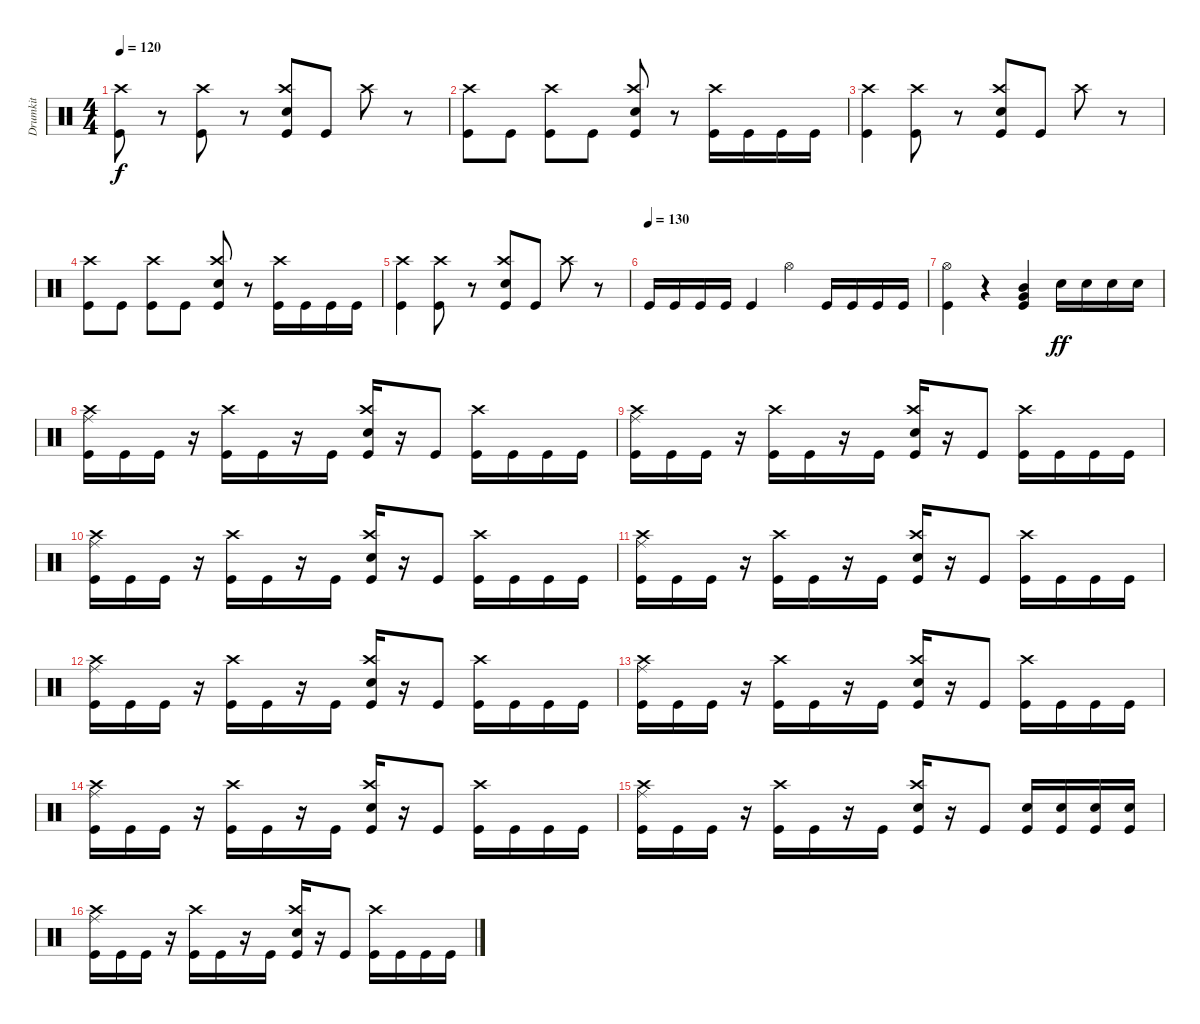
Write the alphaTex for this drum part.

\track ("Drumkit" "Drumkit") {instrument percussion}
\staff {score}
\articulation defaults
\ts (4 4)
\tempo 120
\clef neutral
\ks c
("Kick (hit)" "Crash high (hit)").8{dy f} r.8 ("Crash high (hit)" "Kick (hit)").8 r.8 ("Kick (hit)" "Snare (hit) 2" "Crash high (hit)").8 "Kick (hit)".8 "Crash high (hit)".8 r.8 |
("Kick (hit)" "Crash high (hit)").8 "Kick (hit)".8 ("Kick (hit)" "Crash high (hit)").8 "Kick (hit)".8 ("Kick (hit)" "Crash high (hit)" "Snare (hit) 2").8 r.8 ("Kick (hit)" "Crash high (hit)").16 "Kick (hit)".16 "Kick (hit)".16 "Kick (hit)".16 |
("Kick (hit)" "Crash high (hit)").4 ("Crash high (hit)" "Kick (hit)").8 r.8 ("Kick (hit)" "Snare (hit) 2" "Crash high (hit)").8 "Kick (hit)".8 "Crash high (hit)".8 r.8 |
("Kick (hit)" "Crash high (hit)").8 "Kick (hit)".8 ("Kick (hit)" "Crash high (hit)").8 "Kick (hit)".8 ("Kick (hit)" "Crash high (hit)" "Snare (hit) 2").8 r.8 ("Kick (hit)" "Crash high (hit)").16 "Kick (hit)".16 "Kick (hit)".16 "Kick (hit)".16 |
("Kick (hit)" "Crash high (hit)").4 ("Crash high (hit)" "Kick (hit)").8 r.8 ("Kick (hit)" "Snare (hit) 2" "Crash high (hit)").8 "Kick (hit)".8 "Crash high (hit)".8 r.8 |
\tempo (130)
"Kick (hit)".16 "Kick (hit)".16 "Kick (hit)".16 "Kick (hit)".16 "Kick (hit)".4 "Hi-Hat (open)".4 "Kick (hit)".16 "Kick (hit)".16 "Kick (hit)".16 "Kick (hit)".16 |
("Kick (hit)" "Hi-Hat (open)").4 r.4 ("Kick (hit)" "Very Low Tom (hit)" "Mid Tom (hit)").4 "Snare (hit) 2".16{dy ff} "Snare (hit) 2".16 "Snare (hit) 2".16 "Snare (hit) 2".16 |
("Kick (hit)" "Crash high (hit)" "Ride (middle)").16 "Kick (hit)".16 "Kick (hit)".16 r.16 ("Kick (hit)" "Crash high (hit)").16 "Kick (hit)".16 r.16 "Kick (hit)".16 ("Kick (hit)" "Crash high (hit)" "Snare (hit) 2").16 r.16 "Kick (hit)".8 ("Kick (hit)" "Crash high (hit)").16 "Kick (hit)".16 "Kick (hit)".16 "Kick (hit)".16 |
("Kick (hit)" "Crash high (hit)" "Ride (middle)").16 "Kick (hit)".16 "Kick (hit)".16 r.16 ("Kick (hit)" "Crash high (hit)").16 "Kick (hit)".16 r.16 "Kick (hit)".16 ("Kick (hit)" "Crash high (hit)" "Snare (hit) 2").16 r.16 "Kick (hit)".8 ("Kick (hit)" "Crash high (hit)").16 "Kick (hit)".16 "Kick (hit)".16 "Kick (hit)".16 |
("Kick (hit)" "Crash high (hit)" "Ride (middle)").16 "Kick (hit)".16 "Kick (hit)".16 r.16 ("Kick (hit)" "Crash high (hit)").16 "Kick (hit)".16 r.16 "Kick (hit)".16 ("Kick (hit)" "Crash high (hit)" "Snare (hit) 2").16 r.16 "Kick (hit)".8 ("Kick (hit)" "Crash high (hit)").16 "Kick (hit)".16 "Kick (hit)".16 "Kick (hit)".16 |
("Kick (hit)" "Crash high (hit)" "Ride (middle)").16 "Kick (hit)".16 "Kick (hit)".16 r.16 ("Kick (hit)" "Crash high (hit)").16 "Kick (hit)".16 r.16 "Kick (hit)".16 ("Kick (hit)" "Crash high (hit)" "Snare (hit) 2").16 r.16 "Kick (hit)".8 ("Kick (hit)" "Crash high (hit)").16 "Kick (hit)".16 "Kick (hit)".16 "Kick (hit)".16 |
("Kick (hit)" "Crash high (hit)" "Ride (middle)").16 "Kick (hit)".16 "Kick (hit)".16 r.16 ("Kick (hit)" "Crash high (hit)").16 "Kick (hit)".16 r.16 "Kick (hit)".16 ("Kick (hit)" "Crash high (hit)" "Snare (hit) 2").16 r.16 "Kick (hit)".8 ("Kick (hit)" "Crash high (hit)").16 "Kick (hit)".16 "Kick (hit)".16 "Kick (hit)".16 |
("Kick (hit)" "Crash high (hit)" "Ride (middle)").16 "Kick (hit)".16 "Kick (hit)".16 r.16 ("Kick (hit)" "Crash high (hit)").16 "Kick (hit)".16 r.16 "Kick (hit)".16 ("Kick (hit)" "Crash high (hit)" "Snare (hit) 2").16 r.16 "Kick (hit)".8 ("Kick (hit)" "Crash high (hit)").16 "Kick (hit)".16 "Kick (hit)".16 "Kick (hit)".16 |
("Kick (hit)" "Crash high (hit)" "Ride (middle)").16 "Kick (hit)".16 "Kick (hit)".16 r.16 ("Kick (hit)" "Crash high (hit)").16 "Kick (hit)".16 r.16 "Kick (hit)".16 ("Kick (hit)" "Crash high (hit)" "Snare (hit) 2").16 r.16 "Kick (hit)".8 ("Kick (hit)" "Crash high (hit)").16 "Kick (hit)".16 "Kick (hit)".16 "Kick (hit)".16 |
("Kick (hit)" "Crash high (hit)" "Ride (middle)").16 "Kick (hit)".16 "Kick (hit)".16 r.16 ("Kick (hit)" "Crash high (hit)").16 "Kick (hit)".16 r.16 "Kick (hit)".16 ("Kick (hit)" "Crash high (hit)" "Snare (hit) 2").16 r.16 "Kick (hit)".8 ("Kick (hit)" "Snare (hit) 2").16 ("Kick (hit)" "Snare (hit) 2").16 ("Kick (hit)" "Snare (hit) 2").16 ("Kick (hit)" "Snare (hit) 2").16 |
("Kick (hit)" "Crash high (hit)" "Ride (middle)").16 "Kick (hit)".16 "Kick (hit)".16 r.16 ("Kick (hit)" "Crash high (hit)").16 "Kick (hit)".16 r.16 "Kick (hit)".16 ("Kick (hit)" "Crash high (hit)" "Snare (hit) 2").16 r.16 "Kick (hit)".8 ("Kick (hit)" "Crash high (hit)").16 "Kick (hit)".16 "Kick (hit)".16 "Kick (hit)".16
